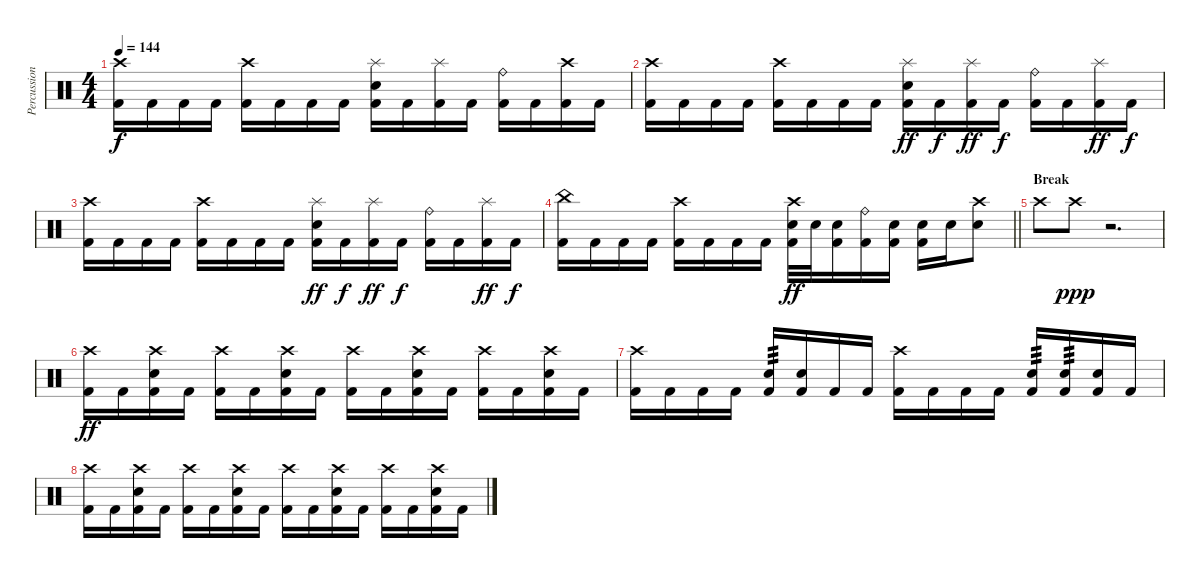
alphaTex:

\track ("Percussion" "Percussion") {instrument percussion}
\staff {score}
\articulation defaults
\ts (4 4)
\tempo 144
\clef neutral
\ks c
("Crash high (hit)" "Kick (hit) 2").16{dy f} "Kick (hit) 2".16 "Kick (hit) 2".16 "Kick (hit) 2".16 ("Crash high (hit)" "Kick (hit) 2").16 "Kick (hit) 2".16 "Kick (hit) 2".16 "Kick (hit) 2".16 ("Splash (hit)" "Electric Snare (hit)" "Kick (hit) 2").16 "Kick (hit) 2".16 ("Splash (hit)" "Kick (hit) 2").16 "Kick (hit) 2".16 ("Ride (bell)" "Kick (hit) 2").16 "Kick (hit) 2".16 ("Crash high (hit)" "Kick (hit) 2").16 "Kick (hit) 2".16 |
("Crash high (hit)" "Kick (hit) 2").16 "Kick (hit) 2".16 "Kick (hit) 2".16 "Kick (hit) 2".16 ("Crash high (hit)" "Kick (hit) 2").16 "Kick (hit) 2".16 "Kick (hit) 2".16 "Kick (hit) 2".16 ("Splash (hit)" "Electric Snare (hit)" "Kick (hit) 2").16{dy ff} "Kick (hit) 2".16{dy f} ("Splash (hit)" "Kick (hit) 2").16{dy ff} "Kick (hit) 2".16{dy f} ("Ride (bell)" "Kick (hit) 2").16 "Kick (hit) 2".16 ("Splash (hit)" "Kick (hit) 2").16{dy ff} "Kick (hit) 2".16{dy f} |
("Crash high (hit)" "Kick (hit) 2").16 "Kick (hit) 2".16 "Kick (hit) 2".16 "Kick (hit) 2".16 ("Crash high (hit)" "Kick (hit) 2").16 "Kick (hit) 2".16 "Kick (hit) 2".16 "Kick (hit) 2".16 ("Splash (hit)" "Electric Snare (hit)" "Kick (hit) 2").16{dy ff} "Kick (hit) 2".16{dy f} ("Splash (hit)" "Kick (hit) 2").16{dy ff} "Kick (hit) 2".16{dy f} ("Ride (bell)" "Kick (hit) 2").16 "Kick (hit) 2".16 ("Splash (hit)" "Kick (hit) 2").16{dy ff} "Kick (hit) 2".16{dy f} |
\barLineRight lightlight
("China (hit)" "Kick (hit) 2").16 "Kick (hit) 2".16 "Kick (hit) 2".16 "Kick (hit) 2".16 ("Crash high (hit)" "Kick (hit) 2").16 "Kick (hit) 2".16 "Kick (hit) 2".16 "Kick (hit) 2".16 ("Crash high (hit)" "Electric Snare (hit)" "Kick (hit) 2").32{dy ff} "Electric Snare (hit)".32 ("Electric Snare (hit)" "Kick (hit) 2").16 ("Ride (bell)" "Kick (hit) 2").16 ("Electric Snare (hit)" "Kick (hit) 2").16 ("Electric Snare (hit)" "Kick (hit) 2").16 "Electric Snare (hit)".16 ("Crash high (hit)" "Electric Snare (hit)").8 |
\section ("" "Break")
"Crash high (hit)".8 "Crash high (hit)".8{dy ppp} r.2{d} |
("Crash high (hit)" "Kick (hit) 2").16{dy ff} "Kick (hit) 2".16 ("Crash high (hit)" "Electric Snare (hit)" "Kick (hit) 2").16 "Kick (hit) 2".16 ("Crash high (hit)" "Kick (hit) 2").16 "Kick (hit) 2".16 ("Crash high (hit)" "Electric Snare (hit)" "Kick (hit) 2").16 "Kick (hit) 2".16 ("Crash high (hit)" "Kick (hit) 2").16 "Kick (hit) 2".16 ("Crash high (hit)" "Electric Snare (hit)" "Kick (hit) 2").16 "Kick (hit) 2".16 ("Crash high (hit)" "Kick (hit) 2").16 "Kick (hit) 2".16 ("Crash high (hit)" "Electric Snare (hit)" "Kick (hit) 2").16 "Kick (hit) 2".16 |
("Crash high (hit)" "Kick (hit) 2").16 "Kick (hit) 2".16 "Kick (hit) 2".16 "Kick (hit) 2".16 ("Electric Snare (hit)" "Kick (hit) 2").16{tp 3} ("Electric Snare (hit)" "Kick (hit) 2").16 "Kick (hit) 2".16 "Kick (hit) 2".16 ("Crash high (hit)" "Kick (hit) 2").16 "Kick (hit) 2".16 "Kick (hit) 2".16 "Kick (hit) 2".16 ("Electric Snare (hit)" "Kick (hit) 2").16{tp 3} ("Electric Snare (hit)" "Kick (hit) 2").16{tp 3} ("Electric Snare (hit)" "Kick (hit) 2").16 "Kick (hit) 2".16 |
("Crash high (hit)" "Kick (hit) 2").16 "Kick (hit) 2".16 ("Crash high (hit)" "Electric Snare (hit)" "Kick (hit) 2").16 "Kick (hit) 2".16 ("Crash high (hit)" "Kick (hit) 2").16 "Kick (hit) 2".16 ("Crash high (hit)" "Electric Snare (hit)" "Kick (hit) 2").16 "Kick (hit) 2".16 ("Crash high (hit)" "Kick (hit) 2").16 "Kick (hit) 2".16 ("Crash high (hit)" "Electric Snare (hit)" "Kick (hit) 2").16 "Kick (hit) 2".16 ("Crash high (hit)" "Kick (hit) 2").16 "Kick (hit) 2".16 ("Crash high (hit)" "Electric Snare (hit)" "Kick (hit) 2").16 "Kick (hit) 2".16
